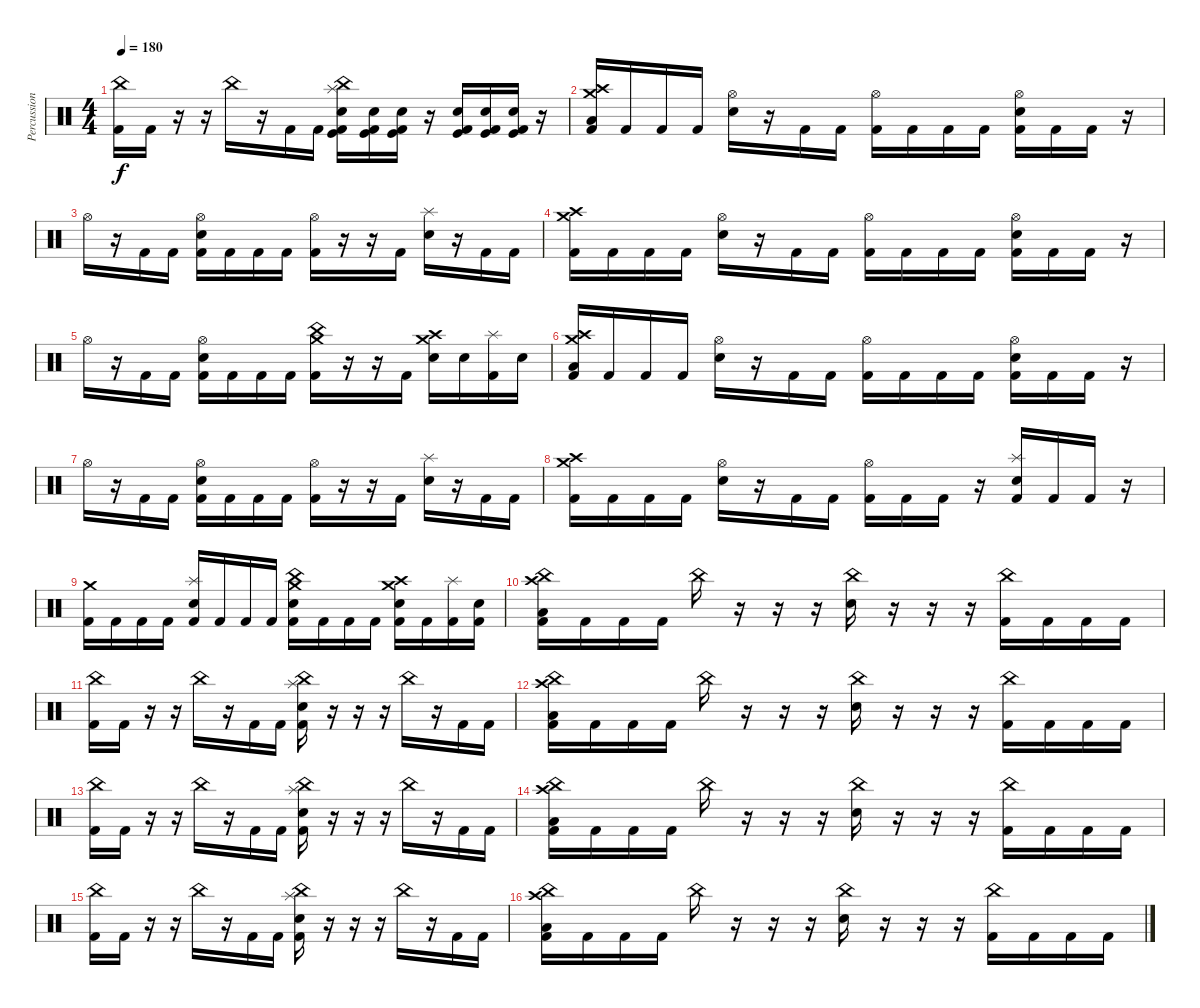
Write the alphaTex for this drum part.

\track ("Percussion" "Percussion") {instrument percussion}
\staff {score}
\articulation defaults
\ts (4 4)
\tempo 180
\clef neutral
\ks c
("China (hit)" "Kick (hit) 2").16{dy f} "Kick (hit) 2".16 r.16 r.16 "China (hit)".16 r.16 "Kick (hit) 2".16 "Kick (hit) 2".16 ("China (hit)" "Splash (hit)" "Electric Snare (hit)" "Kick (hit)" "Kick (hit) 2").16 ("Electric Snare (hit)" "Kick (hit)" "Kick (hit) 2").16 ("Electric Snare (hit)" "Kick (hit)" "Kick (hit) 2").16 r.16 ("Electric Snare (hit)" "Kick (hit)" "Kick (hit) 2").16 ("Electric Snare (hit)" "Kick (hit)" "Kick (hit) 2").16 ("Electric Snare (hit)" "Kick (hit)" "Kick (hit) 2").16 r.16 |
("Crash high (hit)" "Crash medium (hit)" "Low Floor Tom (hit)" "Kick (hit) 2").16 "Kick (hit) 2".16 "Kick (hit) 2".16 "Kick (hit) 2".16 ("Hi-Hat (open)" "Electric Snare (hit)").16 r.16 "Kick (hit) 2".16 "Kick (hit) 2".16 ("Hi-Hat (open)" "Kick (hit) 2").16 "Kick (hit) 2".16 "Kick (hit) 2".16 "Kick (hit) 2".16 ("Hi-Hat (open)" "Electric Snare (hit)" "Kick (hit) 2").16 "Kick (hit) 2".16 "Kick (hit) 2".16 r.16 |
"Hi-Hat (open)".16 r.16 "Kick (hit) 2".16 "Kick (hit) 2".16 ("Hi-Hat (open)" "Electric Snare (hit)" "Kick (hit) 2").16 "Kick (hit) 2".16 "Kick (hit) 2".16 "Kick (hit) 2".16 ("Hi-Hat (open)" "Kick (hit) 2").16 r.16 r.16 "Kick (hit) 2".16 ("Splash (hit)" "Electric Snare (hit)").16 r.16 "Kick (hit) 2".16 "Kick (hit) 2".16 |
("Crash high (hit)" "Crash medium (hit)" "Kick (hit) 2").16 "Kick (hit) 2".16 "Kick (hit) 2".16 "Kick (hit) 2".16 ("Hi-Hat (open)" "Electric Snare (hit)").16 r.16 "Kick (hit) 2".16 "Kick (hit) 2".16 ("Hi-Hat (open)" "Kick (hit) 2").16 "Kick (hit) 2".16 "Kick (hit) 2".16 "Kick (hit) 2".16 ("Hi-Hat (open)" "Electric Snare (hit)" "Kick (hit) 2").16 "Kick (hit) 2".16 "Kick (hit) 2".16 r.16 |
"Hi-Hat (open)".16 r.16 "Kick (hit) 2".16 "Kick (hit) 2".16 ("Hi-Hat (open)" "Electric Snare (hit)" "Kick (hit) 2").16 "Kick (hit) 2".16 "Kick (hit) 2".16 "Kick (hit) 2".16 ("Crash medium (hit)" "China (hit)" "Kick (hit) 2").16 r.16 r.16 "Kick (hit) 2".16 ("Crash medium (hit)" "Crash high (hit)" "Electric Snare (hit)").16 "Electric Snare (hit)".16 ("Splash (hit)" "Kick (hit) 2").16 "Electric Snare (hit)".16 |
("Crash high (hit)" "Crash medium (hit)" "Low Floor Tom (hit)" "Kick (hit) 2").16 "Kick (hit) 2".16 "Kick (hit) 2".16 "Kick (hit) 2".16 ("Hi-Hat (open)" "Electric Snare (hit)").16 r.16 "Kick (hit) 2".16 "Kick (hit) 2".16 ("Hi-Hat (open)" "Kick (hit) 2").16 "Kick (hit) 2".16 "Kick (hit) 2".16 "Kick (hit) 2".16 ("Hi-Hat (open)" "Electric Snare (hit)" "Kick (hit) 2").16 "Kick (hit) 2".16 "Kick (hit) 2".16 r.16 |
"Hi-Hat (open)".16 r.16 "Kick (hit) 2".16 "Kick (hit) 2".16 ("Hi-Hat (open)" "Electric Snare (hit)" "Kick (hit) 2").16 "Kick (hit) 2".16 "Kick (hit) 2".16 "Kick (hit) 2".16 ("Hi-Hat (open)" "Kick (hit) 2").16 r.16 r.16 "Kick (hit) 2".16 ("Splash (hit)" "Electric Snare (hit)").16 r.16 "Kick (hit) 2".16 "Kick (hit) 2".16 |
("Crash high (hit)" "Crash medium (hit)" "Kick (hit) 2").16 "Kick (hit) 2".16 "Kick (hit) 2".16 "Kick (hit) 2".16 ("Hi-Hat (open)" "Electric Snare (hit)").16 r.16 "Kick (hit) 2".16 "Kick (hit) 2".16 ("Hi-Hat (open)" "Kick (hit) 2").16 "Kick (hit) 2".16 "Kick (hit) 2".16 r.16 ("Splash (hit)" "Electric Snare (hit)" "Kick (hit) 2").16 "Kick (hit) 2".16 "Kick (hit) 2".16 r.16 |
("Crash medium (hit)" "Kick (hit) 2").16 "Kick (hit) 2".16 "Kick (hit) 2".16 "Kick (hit) 2".16 ("Splash (hit)" "Electric Snare (hit)" "Kick (hit) 2").16 "Kick (hit) 2".16 "Kick (hit) 2".16 "Kick (hit) 2".16 ("Crash medium (hit)" "China (hit)" "Electric Snare (hit)" "Kick (hit) 2").16 "Kick (hit) 2".16 "Kick (hit) 2".16 "Kick (hit) 2".16 ("Crash medium (hit)" "Crash high (hit)" "Electric Snare (hit)" "Kick (hit) 2").16 "Kick (hit) 2".16 ("Splash (hit)" "Kick (hit) 2").16 ("Electric Snare (hit)" "Kick (hit) 2").16 |
("Crash high (hit)" "China (hit)" "Low Floor Tom (hit)" "Kick (hit) 2").16 "Kick (hit) 2".16 "Kick (hit) 2".16 "Kick (hit) 2".16 "China (hit)".16 r.16 r.16 r.16 ("China (hit)" "Electric Snare (hit)").16 r.16 r.16 r.16 ("China (hit)" "Kick (hit) 2").16 "Kick (hit) 2".16 "Kick (hit) 2".16 "Kick (hit) 2".16 |
("China (hit)" "Kick (hit) 2").16 "Kick (hit) 2".16 r.16 r.16 "China (hit)".16 r.16 "Kick (hit) 2".16 "Kick (hit) 2".16 ("China (hit)" "Splash (hit)" "Electric Snare (hit)" "Kick (hit) 2").16 r.16 r.16 r.16 "China (hit)".16 r.16 "Kick (hit) 2".16 "Kick (hit) 2".16 |
("Crash high (hit)" "China (hit)" "Low Floor Tom (hit)" "Kick (hit) 2").16 "Kick (hit) 2".16 "Kick (hit) 2".16 "Kick (hit) 2".16 "China (hit)".16 r.16 r.16 r.16 ("China (hit)" "Electric Snare (hit)").16 r.16 r.16 r.16 ("China (hit)" "Kick (hit) 2").16 "Kick (hit) 2".16 "Kick (hit) 2".16 "Kick (hit) 2".16 |
("China (hit)" "Kick (hit) 2").16 "Kick (hit) 2".16 r.16 r.16 "China (hit)".16 r.16 "Kick (hit) 2".16 "Kick (hit) 2".16 ("China (hit)" "Splash (hit)" "Electric Snare (hit)" "Kick (hit) 2").16 r.16 r.16 r.16 "China (hit)".16 r.16 "Kick (hit) 2".16 "Kick (hit) 2".16 |
("Crash high (hit)" "China (hit)" "Low Floor Tom (hit)" "Kick (hit) 2").16 "Kick (hit) 2".16 "Kick (hit) 2".16 "Kick (hit) 2".16 "China (hit)".16 r.16 r.16 r.16 ("China (hit)" "Electric Snare (hit)").16 r.16 r.16 r.16 ("China (hit)" "Kick (hit) 2").16 "Kick (hit) 2".16 "Kick (hit) 2".16 "Kick (hit) 2".16 |
("China (hit)" "Kick (hit) 2").16 "Kick (hit) 2".16 r.16 r.16 "China (hit)".16 r.16 "Kick (hit) 2".16 "Kick (hit) 2".16 ("China (hit)" "Splash (hit)" "Electric Snare (hit)" "Kick (hit) 2").16 r.16 r.16 r.16 "China (hit)".16 r.16 "Kick (hit) 2".16 "Kick (hit) 2".16 |
("Crash high (hit)" "China (hit)" "Low Floor Tom (hit)" "Kick (hit) 2").16 "Kick (hit) 2".16 "Kick (hit) 2".16 "Kick (hit) 2".16 "China (hit)".16 r.16 r.16 r.16 ("China (hit)" "Electric Snare (hit)").16 r.16 r.16 r.16 ("China (hit)" "Kick (hit) 2").16 "Kick (hit) 2".16 "Kick (hit) 2".16 "Kick (hit) 2".16
